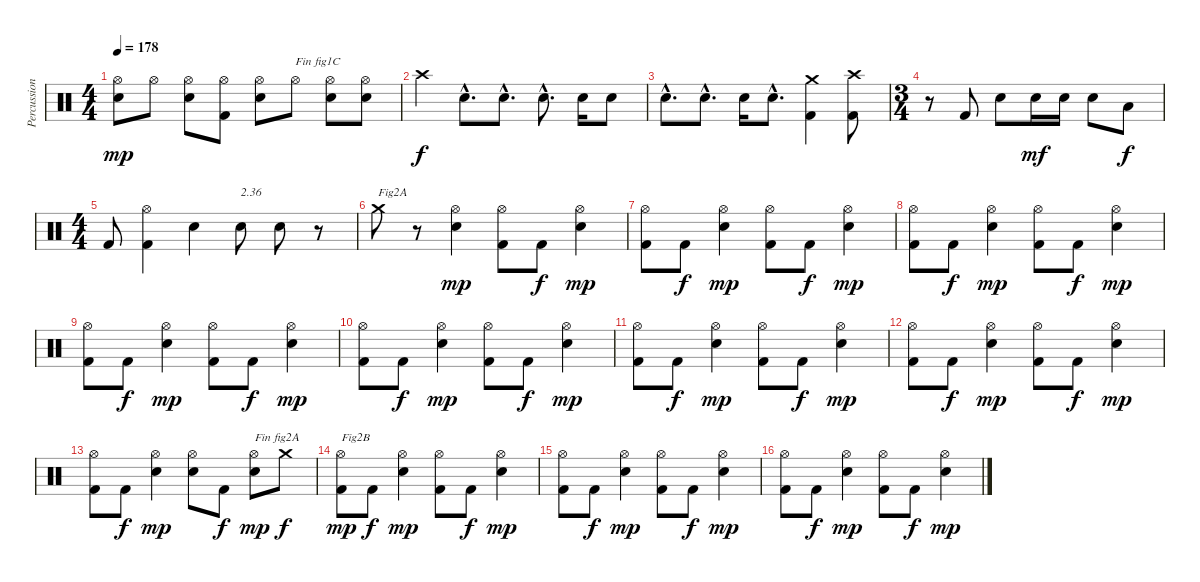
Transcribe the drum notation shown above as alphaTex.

\track ("Percussions" "Percussion") {instrument percussion}
\staff {score}
\articulation defaults
\ts (4 4)
\tempo 178
\clef neutral
\ks c
("Electric Snare (hit)" "Hi-Hat (open)").8{dy mp} "Hi-Hat (open)".8 ("Electric Snare (hit)" "Hi-Hat (open)").8 ("Kick (hit) 2" "Hi-Hat (open)").8 ("Electric Snare (hit)" "Hi-Hat (open)").8 "Hi-Hat (open)".8{txt "Fin fig1C"} ("Electric Snare (hit)" "Hi-Hat (open)").8 ("Electric Snare (hit)" "Hi-Hat (open)").8 |
"Crash high (hit)".4{dy f} "Electric Snare (hit)"{hac}.8{d} "Electric Snare (hit)"{hac}.8{d} "Electric Snare (hit)"{hac}.8{d} "Electric Snare (hit)".16 "Electric Snare (hit)".8 |
"Electric Snare (hit)"{hac}.8{d} "Electric Snare (hit)"{hac}.8{d} "Electric Snare (hit)".16 "Electric Snare (hit)"{hac}.8{d} ("Kick (hit) 2" "Crash medium (hit)").4 ("Kick (hit) 2" "Crash high (hit)").8 |
\ts (3 4)
r.8 "Kick (hit) 2".8 "Electric Snare (hit)".8 "Electric Snare (hit)".16{dy mf} "Electric Snare (hit)".16 "Electric Snare (hit)".8 "Low Floor Tom (hit)".8{dy f} |
\ts (4 4)
"Kick (hit) 2".8 ("Kick (hit) 2" "Hi-Hat (open)").4 "Electric Snare (hit)".4 "Electric Snare (hit)".8{txt "2.36"} "Electric Snare (hit)".8 r.8 |
"Crash medium (hit)".8{txt "Fig2A"} r.8 ("Electric Snare (hit)" "Hi-Hat (open)").4{dy mp} ("Kick (hit) 2" "Hi-Hat (open)").8 "Kick (hit) 2".8{dy f} ("Electric Snare (hit)" "Hi-Hat (open)").4{dy mp} |
("Kick (hit) 2" "Hi-Hat (open)").8 "Kick (hit) 2".8{dy f} ("Electric Snare (hit)" "Hi-Hat (open)").4{dy mp} ("Kick (hit) 2" "Hi-Hat (open)").8 "Kick (hit) 2".8{dy f} ("Electric Snare (hit)" "Hi-Hat (open)").4{dy mp} |
("Kick (hit) 2" "Hi-Hat (open)").8 "Kick (hit) 2".8{dy f} ("Electric Snare (hit)" "Hi-Hat (open)").4{dy mp} ("Kick (hit) 2" "Hi-Hat (open)").8 "Kick (hit) 2".8{dy f} ("Electric Snare (hit)" "Hi-Hat (open)").4{dy mp} |
("Kick (hit) 2" "Hi-Hat (open)").8 "Kick (hit) 2".8{dy f} ("Electric Snare (hit)" "Hi-Hat (open)").4{dy mp} ("Kick (hit) 2" "Hi-Hat (open)").8 "Kick (hit) 2".8{dy f} ("Electric Snare (hit)" "Hi-Hat (open)").4{dy mp} |
("Kick (hit) 2" "Hi-Hat (open)").8 "Kick (hit) 2".8{dy f} ("Electric Snare (hit)" "Hi-Hat (open)").4{dy mp} ("Kick (hit) 2" "Hi-Hat (open)").8 "Kick (hit) 2".8{dy f} ("Electric Snare (hit)" "Hi-Hat (open)").4{dy mp} |
("Kick (hit) 2" "Hi-Hat (open)").8 "Kick (hit) 2".8{dy f} ("Electric Snare (hit)" "Hi-Hat (open)").4{dy mp} ("Kick (hit) 2" "Hi-Hat (open)").8 "Kick (hit) 2".8{dy f} ("Electric Snare (hit)" "Hi-Hat (open)").4{dy mp} |
("Kick (hit) 2" "Hi-Hat (open)").8 "Kick (hit) 2".8{dy f} ("Electric Snare (hit)" "Hi-Hat (open)").4{dy mp} ("Kick (hit) 2" "Hi-Hat (open)").8 "Kick (hit) 2".8{dy f} ("Electric Snare (hit)" "Hi-Hat (open)").4{dy mp} |
("Kick (hit) 2" "Hi-Hat (open)").8 "Kick (hit) 2".8{dy f} ("Electric Snare (hit)" "Hi-Hat (open)").4{dy mp} ("Electric Snare (hit)" "Hi-Hat (open)").8 "Kick (hit) 2".8{dy f} ("Electric Snare (hit)" "Hi-Hat (open)").8{txt "Fin fig2A" dy mp} "Crash medium (hit)".8{dy f} |
("Kick (hit) 2" "Hi-Hat (open)").8{txt "Fig2B" dy mp} "Kick (hit) 2".8{dy f} ("Electric Snare (hit)" "Hi-Hat (open)").4{dy mp} ("Kick (hit) 2" "Hi-Hat (open)").8 "Kick (hit) 2".8{dy f} ("Electric Snare (hit)" "Hi-Hat (open)").4{dy mp} |
("Kick (hit) 2" "Hi-Hat (open)").8 "Kick (hit) 2".8{dy f} ("Electric Snare (hit)" "Hi-Hat (open)").4{dy mp} ("Kick (hit) 2" "Hi-Hat (open)").8 "Kick (hit) 2".8{dy f} ("Electric Snare (hit)" "Hi-Hat (open)").4{dy mp} |
("Kick (hit) 2" "Hi-Hat (open)").8 "Kick (hit) 2".8{dy f} ("Electric Snare (hit)" "Hi-Hat (open)").4{dy mp} ("Kick (hit) 2" "Hi-Hat (open)").8 "Kick (hit) 2".8{dy f} ("Electric Snare (hit)" "Hi-Hat (open)").4{dy mp}
